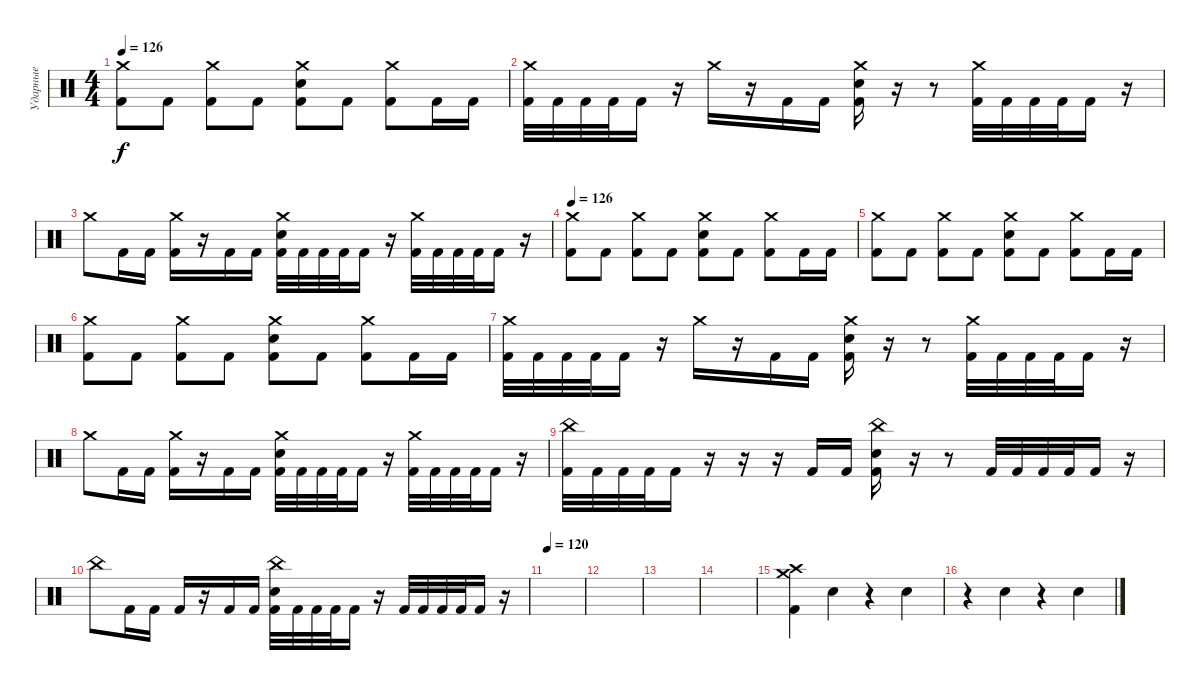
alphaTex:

\track ("Ударные" "Ударные") {instrument percussion}
\staff {score}
\articulation defaults
\ts (4 4)
\tempo 126
\clef neutral
\ks c
("Crash medium (hit)" "Kick (hit) 2").8{dy f} "Kick (hit) 2".8 ("Crash medium (hit)" "Kick (hit) 2").8 "Kick (hit) 2".8 ("Crash medium (hit)" "Electric Snare (hit)" "Kick (hit) 2").8 "Kick (hit) 2".8 ("Crash medium (hit)" "Kick (hit) 2").8 "Kick (hit) 2".16 "Kick (hit) 2".16 |
("Crash medium (hit)" "Kick (hit) 2").32 "Kick (hit) 2".32 "Kick (hit) 2".32 "Kick (hit) 2".32 "Kick (hit) 2".16 r.16 "Crash medium (hit)".16 r.16 "Kick (hit) 2".16 "Kick (hit) 2".16 ("Crash medium (hit)" "Electric Snare (hit)" "Kick (hit) 2").16 r.16 r.8 ("Crash medium (hit)" "Kick (hit) 2").32 "Kick (hit) 2".32 "Kick (hit) 2".32 "Kick (hit) 2".32 "Kick (hit) 2".16 r.16 |
"Crash medium (hit)".8 "Kick (hit) 2".16 "Kick (hit) 2".16 ("Crash medium (hit)" "Kick (hit) 2").16 r.16 "Kick (hit) 2".16 "Kick (hit) 2".16 ("Crash medium (hit)" "Electric Snare (hit)" "Kick (hit) 2").32 "Kick (hit) 2".32 "Kick (hit) 2".32 "Kick (hit) 2".32 "Kick (hit) 2".16 r.16 ("Crash medium (hit)" "Kick (hit) 2").32 "Kick (hit) 2".32 "Kick (hit) 2".32 "Kick (hit) 2".32 "Kick (hit) 2".16 r.16 |
\tempo 126
("Crash medium (hit)" "Kick (hit) 2").8 "Kick (hit) 2".8 ("Crash medium (hit)" "Kick (hit) 2").8 "Kick (hit) 2".8 ("Crash medium (hit)" "Electric Snare (hit)" "Kick (hit) 2").8 "Kick (hit) 2".8 ("Crash medium (hit)" "Kick (hit) 2").8 "Kick (hit) 2".16 "Kick (hit) 2".16 |
("Crash medium (hit)" "Kick (hit) 2").8 "Kick (hit) 2".8 ("Crash medium (hit)" "Kick (hit) 2").8 "Kick (hit) 2".8 ("Crash medium (hit)" "Electric Snare (hit)" "Kick (hit) 2").8 "Kick (hit) 2".8 ("Crash medium (hit)" "Kick (hit) 2").8 "Kick (hit) 2".16 "Kick (hit) 2".16 |
("Crash medium (hit)" "Kick (hit) 2").8 "Kick (hit) 2".8 ("Crash medium (hit)" "Kick (hit) 2").8 "Kick (hit) 2".8 ("Crash medium (hit)" "Electric Snare (hit)" "Kick (hit) 2").8 "Kick (hit) 2".8 ("Crash medium (hit)" "Kick (hit) 2").8 "Kick (hit) 2".16 "Kick (hit) 2".16 |
("Crash medium (hit)" "Kick (hit) 2").32 "Kick (hit) 2".32 "Kick (hit) 2".32 "Kick (hit) 2".32 "Kick (hit) 2".16 r.16 "Crash medium (hit)".16 r.16 "Kick (hit) 2".16 "Kick (hit) 2".16 ("Crash medium (hit)" "Electric Snare (hit)" "Kick (hit) 2").16 r.16 r.8 ("Crash medium (hit)" "Kick (hit) 2").32 "Kick (hit) 2".32 "Kick (hit) 2".32 "Kick (hit) 2".32 "Kick (hit) 2".16 r.16 |
"Crash medium (hit)".8 "Kick (hit) 2".16 "Kick (hit) 2".16 ("Crash medium (hit)" "Kick (hit) 2").16 r.16 "Kick (hit) 2".16 "Kick (hit) 2".16 ("Crash medium (hit)" "Electric Snare (hit)" "Kick (hit) 2").32 "Kick (hit) 2".32 "Kick (hit) 2".32 "Kick (hit) 2".32 "Kick (hit) 2".16 r.16 ("Crash medium (hit)" "Kick (hit) 2").32 "Kick (hit) 2".32 "Kick (hit) 2".32 "Kick (hit) 2".32 "Kick (hit) 2".16 r.16 |
("China (hit)" "Kick (hit) 2").32 "Kick (hit) 2".32 "Kick (hit) 2".32 "Kick (hit) 2".32 "Kick (hit) 2".16 r.16 r.16 r.16 "Kick (hit) 2".16 "Kick (hit) 2".16 ("China (hit)" "Electric Snare (hit)" "Kick (hit) 2").16 r.16 r.8 "Kick (hit) 2".32 "Kick (hit) 2".32 "Kick (hit) 2".32 "Kick (hit) 2".32 "Kick (hit) 2".16 r.16 |
"China (hit)".8 "Kick (hit) 2".16 "Kick (hit) 2".16 "Kick (hit) 2".16 r.16 "Kick (hit) 2".16 "Kick (hit) 2".16 ("China (hit)" "Electric Snare (hit)" "Kick (hit) 2").32 "Kick (hit) 2".32 "Kick (hit) 2".32 "Kick (hit) 2".32 "Kick (hit) 2".16 r.16 "Kick (hit) 2".32 "Kick (hit) 2".32 "Kick (hit) 2".32 "Kick (hit) 2".32 "Kick (hit) 2".16 r.16 |
\tempo 120
|
|
|
|
("Crash medium (hit)" "Crash high (hit)" "Kick (hit) 2").4 "Hand Clap (hit)".4 r.4 "Hand Clap (hit)".4 |
r.4 "Hand Clap (hit)".4 r.4 "Hand Clap (hit)".4
